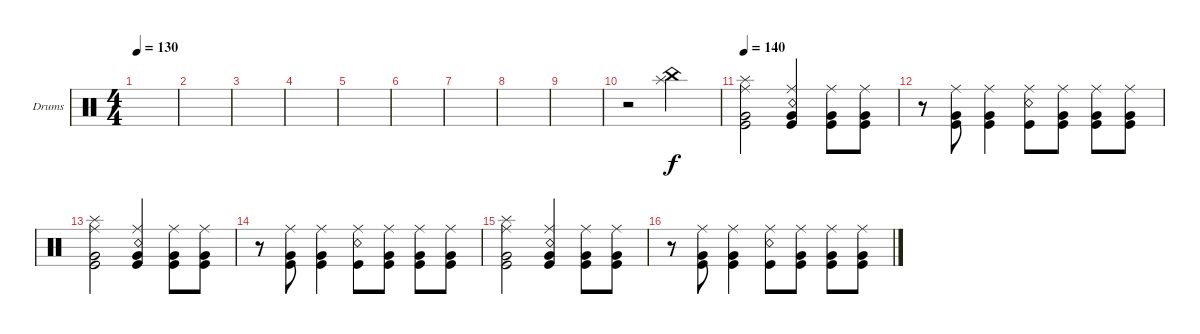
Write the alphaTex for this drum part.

\defaultSystemsLayout 4
\bracketExtendMode groupsimilarinstruments
\firstSystemTrackNameOrientation horizontal
\otherSystemsTrackNameOrientation horizontal
\track ("Drumkit" "Drums") {instrument percussion}
\staff {score}
\articulation defaults
\ts (4 4)
\tempo 130
\clef neutral
\ks c
|
|
|
|
|
|
|
|
|
r.2 ("China (hit)" "Splash (hit)").2 |
\tempo 140
("Splash (hit)" "Very Low Tom (hit)" "Kick (hit)" "Ride (middle)").2 ("Snare (rim shot)" "Very Low Tom (hit)" "Kick (hit)" "Ride (middle)").4 ("Very Low Tom (hit)" "Kick (hit)" "Ride (middle)").8 ("Very Low Tom (hit)" "Kick (hit)" "Ride (middle)").8 |
r.8 ("Very Low Tom (hit)" "Kick (hit)" "Ride (middle)").8 ("Very Low Tom (hit)" "Kick (hit)" "Ride (middle)").4 ("Snare (rim shot)" "Kick (hit)" "Ride (middle)").8 ("Very Low Tom (hit)" "Kick (hit)" "Ride (middle)").8 ("Very Low Tom (hit)" "Kick (hit)" "Ride (middle)").8 ("Very Low Tom (hit)" "Kick (hit)" "Ride (middle)").8 |
("Splash (hit)" "Very Low Tom (hit)" "Kick (hit)" "Ride (middle)").2 ("Snare (rim shot)" "Very Low Tom (hit)" "Kick (hit)" "Ride (middle)").4 ("Very Low Tom (hit)" "Kick (hit)" "Ride (middle)").8 ("Very Low Tom (hit)" "Kick (hit)" "Ride (middle)").8 |
r.8 ("Very Low Tom (hit)" "Kick (hit)" "Ride (middle)").8 ("Very Low Tom (hit)" "Kick (hit)" "Ride (middle)").4 ("Snare (rim shot)" "Kick (hit)" "Ride (middle)").8 ("Very Low Tom (hit)" "Kick (hit)" "Ride (middle)").8 ("Very Low Tom (hit)" "Kick (hit)" "Ride (middle)").8 ("Very Low Tom (hit)" "Kick (hit)" "Ride (middle)").8 |
("Splash (hit)" "Very Low Tom (hit)" "Kick (hit)" "Ride (middle)").2 ("Snare (rim shot)" "Very Low Tom (hit)" "Kick (hit)" "Ride (middle)").4 ("Very Low Tom (hit)" "Kick (hit)" "Ride (middle)").8 ("Very Low Tom (hit)" "Kick (hit)" "Ride (middle)").8 |
r.8 ("Very Low Tom (hit)" "Kick (hit)" "Ride (middle)").8 ("Very Low Tom (hit)" "Kick (hit)" "Ride (middle)").4 ("Snare (rim shot)" "Kick (hit)" "Ride (middle)").8 ("Very Low Tom (hit)" "Kick (hit)" "Ride (middle)").8 ("Very Low Tom (hit)" "Kick (hit)" "Ride (middle)").8 ("Very Low Tom (hit)" "Kick (hit)" "Ride (middle)").8
